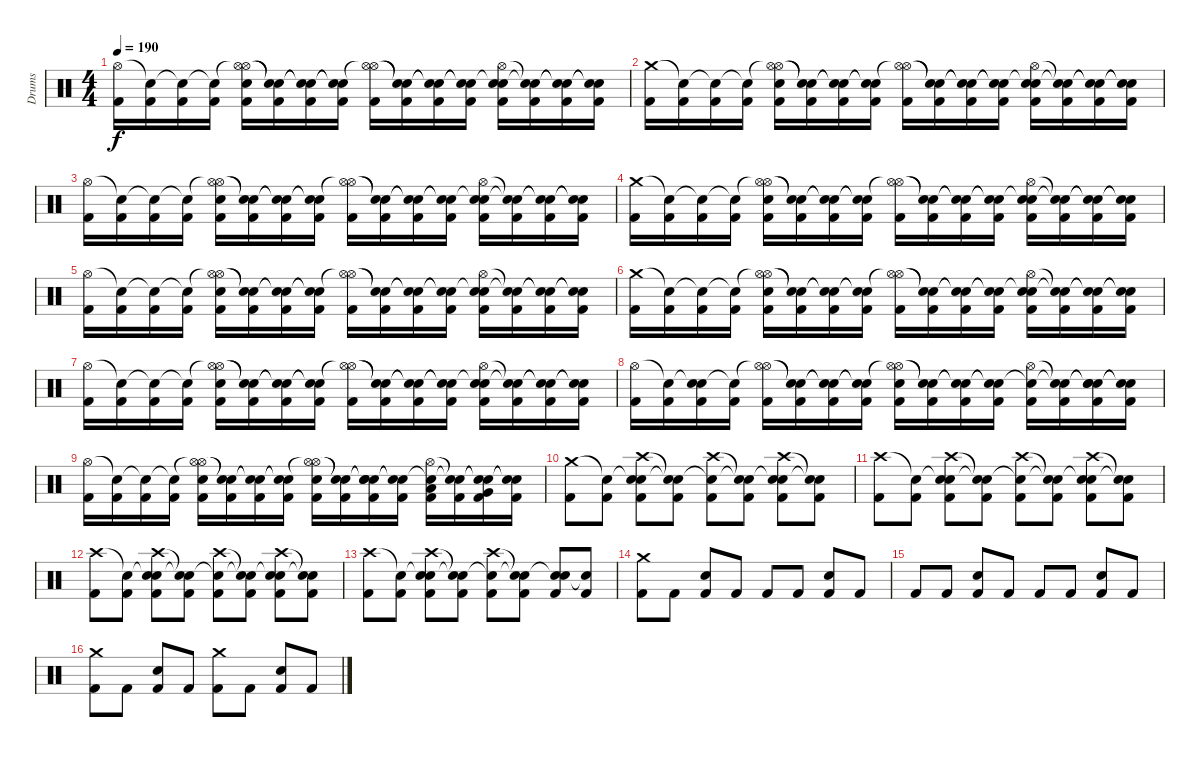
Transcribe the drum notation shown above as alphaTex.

\track ("Drums" "Drums") {instrument percussion}
\staff {score}
\articulation defaults
\ts (4 4)
\tempo 190
\clef neutral
\ks c
("Hi-Hat (open)" "Kick (hit) 2").16{dy f} ("Snare (hit)"{t} "Kick (hit) 2").16 ("Snare (hit)"{t} "Kick (hit) 2").16 ("Snare (hit)"{t} "Kick (hit) 2").16 ("Hi-Hat (open)"{t} "Hi-Hat (open)" "Electric Snare (hit)" "Kick (hit) 2").16 ("Snare (hit)"{t} "Snare (hit)"{t} "Kick (hit) 2").16 ("Snare (hit)"{t} "Snare (hit)"{t} "Kick (hit) 2").16 ("Snare (hit)"{t} "Snare (hit)"{t} "Kick (hit) 2").16 ("Hi-Hat (open)" "Hi-Hat (open)"{t} "Kick (hit) 2").16 ("Snare (hit)"{t} "Snare (hit)"{t} "Kick (hit) 2").16 ("Snare (hit)"{t} "Snare (hit)"{t} "Kick (hit) 2").16 ("Snare (hit)"{t} "Snare (hit)"{t} "Kick (hit) 2").16 ("Snare (hit)"{t} "Hi-Hat (open)" "Electric Snare (hit)" "Kick (hit) 2").16 ("Snare (hit)"{t} "Snare (hit)"{t} "Kick (hit) 2").16 ("Snare (hit)"{t} "Snare (hit)"{t} "Kick (hit) 2").16 ("Snare (hit)"{t} "Snare (hit)"{t} "Kick (hit) 2").16 |
("Crash medium (hit)" "Kick (hit) 2").16 ("Snare (hit)"{t} "Kick (hit) 2").16 ("Snare (hit)"{t} "Kick (hit) 2").16 ("Snare (hit)"{t} "Kick (hit) 2").16 ("Hi-Hat (open)"{t} "Hi-Hat (open)" "Electric Snare (hit)" "Kick (hit) 2").16 ("Snare (hit)"{t} "Snare (hit)"{t} "Kick (hit) 2").16 ("Snare (hit)"{t} "Snare (hit)"{t} "Kick (hit) 2").16 ("Snare (hit)"{t} "Snare (hit)"{t} "Kick (hit) 2").16 ("Hi-Hat (open)" "Hi-Hat (open)"{t} "Kick (hit) 2").16 ("Snare (hit)"{t} "Snare (hit)"{t} "Kick (hit) 2").16 ("Snare (hit)"{t} "Snare (hit)"{t} "Kick (hit) 2").16 ("Snare (hit)"{t} "Snare (hit)"{t} "Kick (hit) 2").16 ("Snare (hit)"{t} "Hi-Hat (open)" "Electric Snare (hit)" "Kick (hit) 2").16 ("Snare (hit)"{t} "Snare (hit)"{t} "Kick (hit) 2").16 ("Snare (hit)"{t} "Snare (hit)"{t} "Kick (hit) 2").16 ("Snare (hit)"{t} "Snare (hit)"{t} "Kick (hit) 2").16 |
("Hi-Hat (open)" "Kick (hit) 2").16 ("Snare (hit)"{t} "Kick (hit) 2").16 ("Snare (hit)"{t} "Kick (hit) 2").16 ("Snare (hit)"{t} "Kick (hit) 2").16 ("Hi-Hat (open)"{t} "Hi-Hat (open)" "Electric Snare (hit)" "Kick (hit) 2").16 ("Snare (hit)"{t} "Snare (hit)"{t} "Kick (hit) 2").16 ("Snare (hit)"{t} "Snare (hit)"{t} "Kick (hit) 2").16 ("Snare (hit)"{t} "Snare (hit)"{t} "Kick (hit) 2").16 ("Hi-Hat (open)" "Hi-Hat (open)"{t} "Kick (hit) 2").16 ("Snare (hit)"{t} "Snare (hit)"{t} "Kick (hit) 2").16 ("Snare (hit)"{t} "Snare (hit)"{t} "Kick (hit) 2").16 ("Snare (hit)"{t} "Snare (hit)"{t} "Kick (hit) 2").16 ("Snare (hit)"{t} "Hi-Hat (open)" "Electric Snare (hit)" "Kick (hit) 2").16 ("Snare (hit)"{t} "Snare (hit)"{t} "Kick (hit) 2").16 ("Snare (hit)"{t} "Snare (hit)"{t} "Kick (hit) 2").16 ("Snare (hit)"{t} "Snare (hit)"{t} "Kick (hit) 2").16 |
("Crash medium (hit)" "Kick (hit) 2").16 ("Snare (hit)"{t} "Kick (hit) 2").16 ("Snare (hit)"{t} "Kick (hit) 2").16 ("Snare (hit)"{t} "Kick (hit) 2").16 ("Hi-Hat (open)"{t} "Hi-Hat (open)" "Electric Snare (hit)" "Kick (hit) 2").16 ("Snare (hit)"{t} "Snare (hit)"{t} "Kick (hit) 2").16 ("Snare (hit)"{t} "Snare (hit)"{t} "Kick (hit) 2").16 ("Snare (hit)"{t} "Snare (hit)"{t} "Kick (hit) 2").16 ("Hi-Hat (open)" "Hi-Hat (open)"{t} "Kick (hit) 2").16 ("Snare (hit)"{t} "Snare (hit)"{t} "Kick (hit) 2").16 ("Snare (hit)"{t} "Snare (hit)"{t} "Kick (hit) 2").16 ("Snare (hit)"{t} "Snare (hit)"{t} "Kick (hit) 2").16 ("Snare (hit)"{t} "Hi-Hat (open)" "Electric Snare (hit)" "Kick (hit) 2").16 ("Snare (hit)"{t} "Snare (hit)"{t} "Kick (hit) 2").16 ("Snare (hit)"{t} "Snare (hit)"{t} "Kick (hit) 2").16 ("Snare (hit)"{t} "Snare (hit)"{t} "Kick (hit) 2").16 |
("Hi-Hat (open)" "Kick (hit) 2").16 ("Snare (hit)"{t} "Kick (hit) 2").16 ("Snare (hit)"{t} "Kick (hit) 2").16 ("Snare (hit)"{t} "Kick (hit) 2").16 ("Hi-Hat (open)"{t} "Hi-Hat (open)" "Electric Snare (hit)" "Kick (hit) 2").16 ("Snare (hit)"{t} "Snare (hit)"{t} "Kick (hit) 2").16 ("Snare (hit)"{t} "Snare (hit)"{t} "Kick (hit) 2").16 ("Snare (hit)"{t} "Snare (hit)"{t} "Kick (hit) 2").16 ("Hi-Hat (open)" "Hi-Hat (open)"{t} "Kick (hit) 2").16 ("Snare (hit)"{t} "Snare (hit)"{t} "Kick (hit) 2").16 ("Snare (hit)"{t} "Snare (hit)"{t} "Kick (hit) 2").16 ("Snare (hit)"{t} "Snare (hit)"{t} "Kick (hit) 2").16 ("Snare (hit)"{t} "Hi-Hat (open)" "Electric Snare (hit)" "Kick (hit) 2").16 ("Snare (hit)"{t} "Snare (hit)"{t} "Kick (hit) 2").16 ("Snare (hit)"{t} "Snare (hit)"{t} "Kick (hit) 2").16 ("Snare (hit)"{t} "Snare (hit)"{t} "Kick (hit) 2").16 |
("Crash medium (hit)" "Kick (hit) 2").16 ("Snare (hit)"{t} "Kick (hit) 2").16 ("Snare (hit)"{t} "Kick (hit) 2").16 ("Snare (hit)"{t} "Kick (hit) 2").16 ("Hi-Hat (open)"{t} "Hi-Hat (open)" "Electric Snare (hit)" "Kick (hit) 2").16 ("Snare (hit)"{t} "Snare (hit)"{t} "Kick (hit) 2").16 ("Snare (hit)"{t} "Snare (hit)"{t} "Kick (hit) 2").16 ("Snare (hit)"{t} "Snare (hit)"{t} "Kick (hit) 2").16 ("Hi-Hat (open)" "Hi-Hat (open)"{t} "Kick (hit) 2").16 ("Snare (hit)"{t} "Snare (hit)"{t} "Kick (hit) 2").16 ("Snare (hit)"{t} "Snare (hit)"{t} "Kick (hit) 2").16 ("Snare (hit)"{t} "Snare (hit)"{t} "Kick (hit) 2").16 ("Snare (hit)"{t} "Hi-Hat (open)" "Electric Snare (hit)" "Kick (hit) 2").16 ("Snare (hit)"{t} "Snare (hit)"{t} "Kick (hit) 2").16 ("Snare (hit)"{t} "Snare (hit)"{t} "Kick (hit) 2").16 ("Snare (hit)"{t} "Snare (hit)"{t} "Kick (hit) 2").16 |
("Hi-Hat (open)" "Kick (hit) 2").16 ("Snare (hit)"{t} "Kick (hit) 2").16 ("Snare (hit)"{t} "Kick (hit) 2").16 ("Snare (hit)"{t} "Kick (hit) 2").16 ("Hi-Hat (open)"{t} "Hi-Hat (open)" "Electric Snare (hit)" "Kick (hit) 2").16 ("Snare (hit)"{t} "Snare (hit)"{t} "Kick (hit) 2").16 ("Snare (hit)"{t} "Snare (hit)"{t} "Kick (hit) 2").16 ("Snare (hit)"{t} "Snare (hit)"{t} "Kick (hit) 2").16 ("Hi-Hat (open)" "Hi-Hat (open)"{t} "Kick (hit) 2").16 ("Snare (hit)"{t} "Snare (hit)"{t} "Kick (hit) 2").16 ("Snare (hit)"{t} "Snare (hit)"{t} "Kick (hit) 2").16 ("Snare (hit)"{t} "Snare (hit)"{t} "Kick (hit) 2").16 ("Snare (hit)"{t} "Hi-Hat (open)" "Electric Snare (hit)" "Kick (hit) 2").16 ("Snare (hit)"{t} "Snare (hit)"{t} "Kick (hit) 2").16 ("Snare (hit)"{t} "Snare (hit)"{t} "Kick (hit) 2").16 ("Snare (hit)"{t} "Snare (hit)"{t} "Kick (hit) 2").16 |
("Hi-Hat (open)" "Kick (hit) 2").16 ("Snare (hit)"{t} "Kick (hit) 2").16 ("Snare (hit)"{t} "Electric Snare (hit)" "Kick (hit) 2").16 ("Snare (hit)"{t} "Kick (hit) 2").16 ("Hi-Hat (open)"{t} "Hi-Hat (open)" "Kick (hit) 2").16 ("Snare (hit)"{t} "Snare (hit)"{t} "Kick (hit) 2").16 ("Snare (hit)"{t} "Snare (hit)"{t} "Kick (hit) 2").16 ("Snare (hit)"{t} "Snare (hit)"{t} "Kick (hit) 2").16 ("Hi-Hat (open)" "Hi-Hat (open)"{t} "Electric Snare (hit)" "Kick (hit) 2").16 ("Snare (hit)"{t} "Snare (hit)"{t} "Kick (hit) 2").16 ("Snare (hit)"{t} "Snare (hit)"{t} "Kick (hit) 2").16 ("Snare (hit)"{t} "Snare (hit)"{t} "Kick (hit) 2").16 ("Snare (hit)"{t} "Hi-Hat (open)" "Kick (hit) 2").16 ("Snare (hit)"{t} "Snare (hit)"{t} "Kick (hit) 2").16 ("Snare (hit)"{t} "Snare (hit)"{t} "Electric Snare (hit)" "Kick (hit) 2").16 ("Snare (hit)"{t} "Snare (hit)"{t} "Kick (hit) 2").16 |
("Hi-Hat (open)" "Kick (hit) 2").16 ("Snare (hit)"{t} "Kick (hit) 2").16 ("Snare (hit)"{t} "Kick (hit) 2").16 ("Snare (hit)"{t} "Kick (hit) 2").16 ("Hi-Hat (open)"{t} "Hi-Hat (open)" "Electric Snare (hit)" "Kick (hit) 2").16 ("Snare (hit)"{t} "Snare (hit)"{t} "Kick (hit) 2").16 ("Snare (hit)"{t} "Snare (hit)"{t} "Kick (hit) 2").16 ("Snare (hit)"{t} "Snare (hit)"{t} "Kick (hit) 2").16 ("Hi-Hat (open)" "Hi-Hat (open)"{t} "Electric Snare (hit)" "Kick (hit) 2").16 ("Snare (hit)"{t} "Snare (hit)"{t} "Kick (hit) 2").16 ("Snare (hit)"{t} "Snare (hit)"{t} "Electric Snare (hit)" "Kick (hit) 2").16 ("Snare (hit)"{t} "Snare (hit)"{t} "Kick (hit) 2").16 ("Snare (hit)"{t} "Hi-Hat (open)" "Low Tom (hit)" "Kick (hit) 2").16 ("Snare (hit)"{t} "Snare (hit)"{t} "Kick (hit) 2").16 ("Snare (hit)"{t} "Snare (hit)"{t} "Very Low Tom (hit)" "Kick (hit) 2").16 ("Snare (hit)"{t} "Snare (hit)"{t} "Kick (hit) 2").16 |
("Crash medium (hit)" "Kick (hit) 2").8 ("Snare (hit)"{t} "Kick (hit) 2").8 ("Snare (hit)"{t} "Crash high (hit)" "Electric Snare (hit)" "Kick (hit) 2").8 ("Snare (hit)"{t} "Snare (hit)"{t} "Kick (hit) 2").8 ("Crash high (hit)" "Snare (hit)"{t} "Kick (hit) 2").8 ("Snare (hit)"{t} "Snare (hit)"{t} "Kick (hit) 2").8 ("Snare (hit)"{t} "Crash high (hit)" "Electric Snare (hit)" "Kick (hit) 2").8 ("Snare (hit)"{t} "Snare (hit)"{t} "Kick (hit) 2").8 |
("Crash high (hit)" "Kick (hit) 2").8 ("Snare (hit)"{t} "Kick (hit) 2").8 ("Snare (hit)"{t} "Crash high (hit)" "Electric Snare (hit)" "Kick (hit) 2").8 ("Snare (hit)"{t} "Snare (hit)"{t} "Kick (hit) 2").8 ("Crash high (hit)" "Snare (hit)"{t} "Kick (hit) 2").8 ("Snare (hit)"{t} "Snare (hit)"{t} "Kick (hit) 2").8 ("Snare (hit)"{t} "Crash high (hit)" "Electric Snare (hit)" "Kick (hit) 2").8 ("Snare (hit)"{t} "Snare (hit)"{t} "Kick (hit) 2").8 |
("Crash high (hit)" "Kick (hit) 2").8 ("Snare (hit)"{t} "Kick (hit) 2").8 ("Snare (hit)"{t} "Crash high (hit)" "Electric Snare (hit)" "Kick (hit) 2").8 ("Snare (hit)"{t} "Snare (hit)"{t} "Kick (hit) 2").8 ("Crash high (hit)" "Snare (hit)"{t} "Kick (hit) 2").8 ("Snare (hit)"{t} "Snare (hit)"{t} "Kick (hit) 2").8 ("Snare (hit)"{t} "Crash high (hit)" "Electric Snare (hit)" "Kick (hit) 2").8 ("Snare (hit)"{t} "Snare (hit)"{t} "Kick (hit) 2").8 |
("Crash high (hit)" "Kick (hit) 2").8 ("Snare (hit)"{t} "Kick (hit) 2").8 ("Snare (hit)"{t} "Crash high (hit)" "Electric Snare (hit)" "Kick (hit) 2").8 ("Snare (hit)"{t} "Snare (hit)"{t} "Kick (hit) 2").8 ("Crash high (hit)" "Snare (hit)"{t} "Kick (hit) 2").8 ("Snare (hit)"{t} "Snare (hit)"{t} "Kick (hit) 2").8 ("Snare (hit)"{t} "Electric Snare (hit)" "Kick (hit) 2").8 ("Snare (hit)"{t} "Kick (hit) 2").8 |
("Crash medium (hit)" "Kick (hit) 2").8 "Kick (hit) 2".8 ("Electric Snare (hit)" "Kick (hit) 2").8 "Kick (hit) 2".8 "Kick (hit) 2".8 "Kick (hit) 2".8 ("Electric Snare (hit)" "Kick (hit) 2").8 "Kick (hit) 2".8 |
"Kick (hit) 2".8 "Kick (hit) 2".8 ("Electric Snare (hit)" "Kick (hit) 2").8 "Kick (hit) 2".8 "Kick (hit) 2".8 "Kick (hit) 2".8 ("Electric Snare (hit)" "Kick (hit) 2").8 "Kick (hit) 2".8 |
("Crash medium (hit)" "Kick (hit) 2").8 "Kick (hit) 2".8 ("Electric Snare (hit)" "Kick (hit) 2").8 "Kick (hit) 2".8 ("Crash medium (hit)" "Kick (hit) 2").8 "Kick (hit) 2".8 ("Electric Snare (hit)" "Kick (hit) 2").8 "Kick (hit) 2".8
